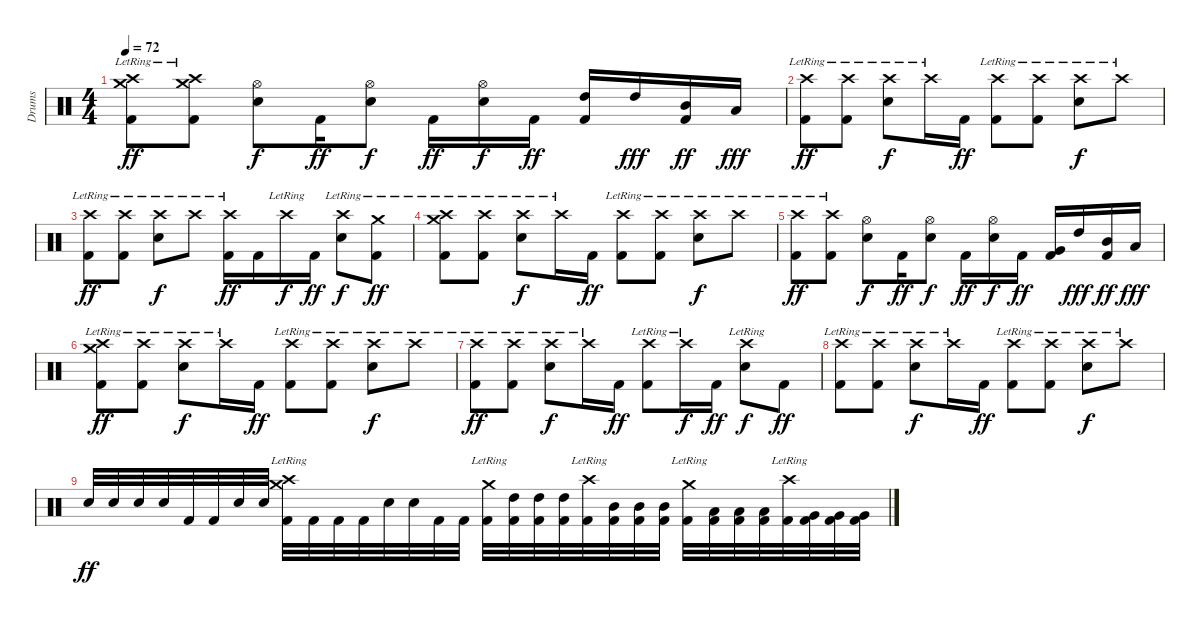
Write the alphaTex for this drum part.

\track ("Drums" "Drums") {instrument percussion}
\staff {score}
\articulation defaults
\ts (4 4)
\tempo 72
\clef neutral
\ks c
("Crash medium (hit)"{lr} "Crash high (hit)" "Kick (hit) 2").8{dy ff} ("Crash medium (hit)"{lr} "Crash high (hit)" "Kick (hit) 2").8 ("Hi-Hat (open)" "Snare (hit) 2").8{dy f} "Kick (hit) 2".16{dy ff} ("Hi-Hat (open)" "Snare (hit) 2").8{dy f} "Kick (hit) 2".16{dy ff} ("Hi-Hat (open)" "Snare (hit) 2").16{dy f} "Kick (hit) 2".16{dy ff} ("High Tom (hit)" "Kick (hit) 2").16 "High Tom (hit)".16{dy fff} ("Mid Tom (hit)" "Kick (hit) 2").16{dy ff} "Low Tom (hit)".16{dy fff} |
("Crash high (hit)"{lr} "Kick (hit) 2").8{dy ff} ("Crash high (hit)"{lr} "Kick (hit) 2").8 ("Crash high (hit)"{lr} "Snare (hit) 2").8{dy f} "Crash high (hit)"{lr}.16 "Kick (hit) 2".16{dy ff} ("Crash high (hit)"{lr} "Kick (hit) 2").8 ("Crash high (hit)"{lr} "Kick (hit) 2").8 ("Crash high (hit)"{lr} "Snare (hit) 2").8{dy f} "Crash high (hit)"{lr}.8 |
("Crash high (hit)"{lr} "Kick (hit) 2").8{dy ff} ("Crash high (hit)"{lr} "Kick (hit) 2").8 ("Crash high (hit)"{lr} "Snare (hit) 2").8{dy f} "Crash high (hit)"{lr}.8 ("Crash high (hit)"{lr} "Kick (hit) 2").16{dy ff} "Kick (hit) 2".16 "Crash high (hit)"{lr}.16{dy f} "Kick (hit) 2".16{dy ff} ("Crash high (hit)"{lr} "Snare (hit) 2").8{dy f} ("Crash medium (hit)"{lr} "Kick (hit) 2").8{dy ff} |
("Crash medium (hit)"{lr} "Crash high (hit)" "Kick (hit) 2").8 ("Crash high (hit)"{lr} "Kick (hit) 2").8 ("Crash high (hit)"{lr} "Snare (hit) 2").8{dy f} "Crash high (hit)"{lr}.16 "Kick (hit) 2".16{dy ff} ("Crash high (hit)"{lr} "Kick (hit) 2").8 ("Crash high (hit)"{lr} "Kick (hit) 2").8 ("Crash high (hit)"{lr} "Snare (hit) 2").8{dy f} "Crash high (hit)"{lr}.8 |
("Crash high (hit)"{lr} "Kick (hit) 2").8{dy ff} ("Crash high (hit)"{lr} "Kick (hit) 2").8 ("Hi-Hat (open)" "Snare (hit) 2").8{dy f} "Kick (hit) 2".16{dy ff} ("Hi-Hat (open)" "Snare (hit) 2").8{dy f} "Kick (hit) 2".16{dy ff} ("Hi-Hat (open)" "Snare (hit) 2").16{dy f} "Kick (hit) 2".16{dy ff} ("Very Low Tom (hit)" "Kick (hit) 2").16 "High Tom (hit)".16{dy fff} ("Mid Tom (hit)" "Kick (hit) 2").16{dy ff} "Low Tom (hit)".16{dy fff} |
("Crash medium (hit)"{lr} "Crash high (hit)" "Kick (hit) 2").8{dy ff} ("Crash high (hit)"{lr} "Kick (hit) 2").8 ("Crash high (hit)"{lr} "Snare (hit) 2").8{dy f} "Crash high (hit)"{lr}.16 "Kick (hit) 2".16{dy ff} ("Crash high (hit)"{lr} "Kick (hit) 2").8 ("Crash high (hit)"{lr} "Kick (hit) 2").8 ("Crash high (hit)"{lr} "Snare (hit) 2").8{dy f} "Crash high (hit)"{lr}.8 |
("Crash high (hit)"{lr} "Kick (hit) 2").8{dy ff} ("Crash high (hit)"{lr} "Kick (hit) 2").8 ("Crash high (hit)"{lr} "Snare (hit) 2").8{dy f} "Crash high (hit)"{lr}.16 "Kick (hit) 2".16{dy ff} ("Crash high (hit)"{lr} "Kick (hit) 2").8 "Crash high (hit)"{lr}.16{dy f} "Kick (hit) 2".16{dy ff} ("Crash high (hit)"{lr} "Snare (hit) 2").8{dy f} "Kick (hit) 2".8{dy ff} |
("Crash high (hit)"{lr} "Kick (hit) 2").8 ("Crash high (hit)"{lr} "Kick (hit) 2").8 ("Crash high (hit)"{lr} "Snare (hit) 2").8{dy f} "Crash high (hit)"{lr}.16 "Kick (hit) 2".16{dy ff} ("Crash high (hit)"{lr} "Kick (hit) 2").8 ("Crash high (hit)"{lr} "Kick (hit) 2").8 ("Crash high (hit)"{lr} "Snare (hit) 2").8{dy f} "Crash high (hit)"{lr}.8 |
"Snare (hit) 2".32{dy ff} "Snare (hit) 2".32 "Snare (hit) 2".32 "Snare (hit) 2".32 "Kick (hit) 2".32 "Kick (hit) 2".32 "Snare (hit) 2".32 "Snare (hit) 2".32 ("Crash medium (hit)"{lr} "Crash high (hit)" "Kick (hit) 2").32 "Kick (hit) 2".32 "Kick (hit) 2".32 "Kick (hit) 2".32 "Snare (hit) 2".32 "Snare (hit) 2".32 "Kick (hit) 2".32 "Kick (hit) 2".32 ("Crash medium (hit)"{lr} "Kick (hit) 2").32 ("High Tom (hit)" "Kick (hit) 2").32 ("High Tom (hit)" "Kick (hit) 2").32 ("High Tom (hit)" "Kick (hit) 2").32 ("Crash high (hit)"{lr} "Kick (hit) 2").32 ("Mid Tom (hit)" "Kick (hit) 2").32 ("Mid Tom (hit)" "Kick (hit) 2").32 ("Mid Tom (hit)" "Kick (hit) 2").32 ("Crash medium (hit)"{lr} "Kick (hit) 2").32 ("Low Tom (hit)" "Kick (hit) 2").32 ("Low Tom (hit)" "Kick (hit) 2").32 ("Low Tom (hit)" "Kick (hit) 2").32 ("Crash high (hit)"{lr} "Kick (hit) 2").32 ("Very Low Tom (hit)" "Kick (hit) 2").32 ("Very Low Tom (hit)" "Kick (hit) 2").32 ("Very Low Tom (hit)" "Kick (hit) 2").32
